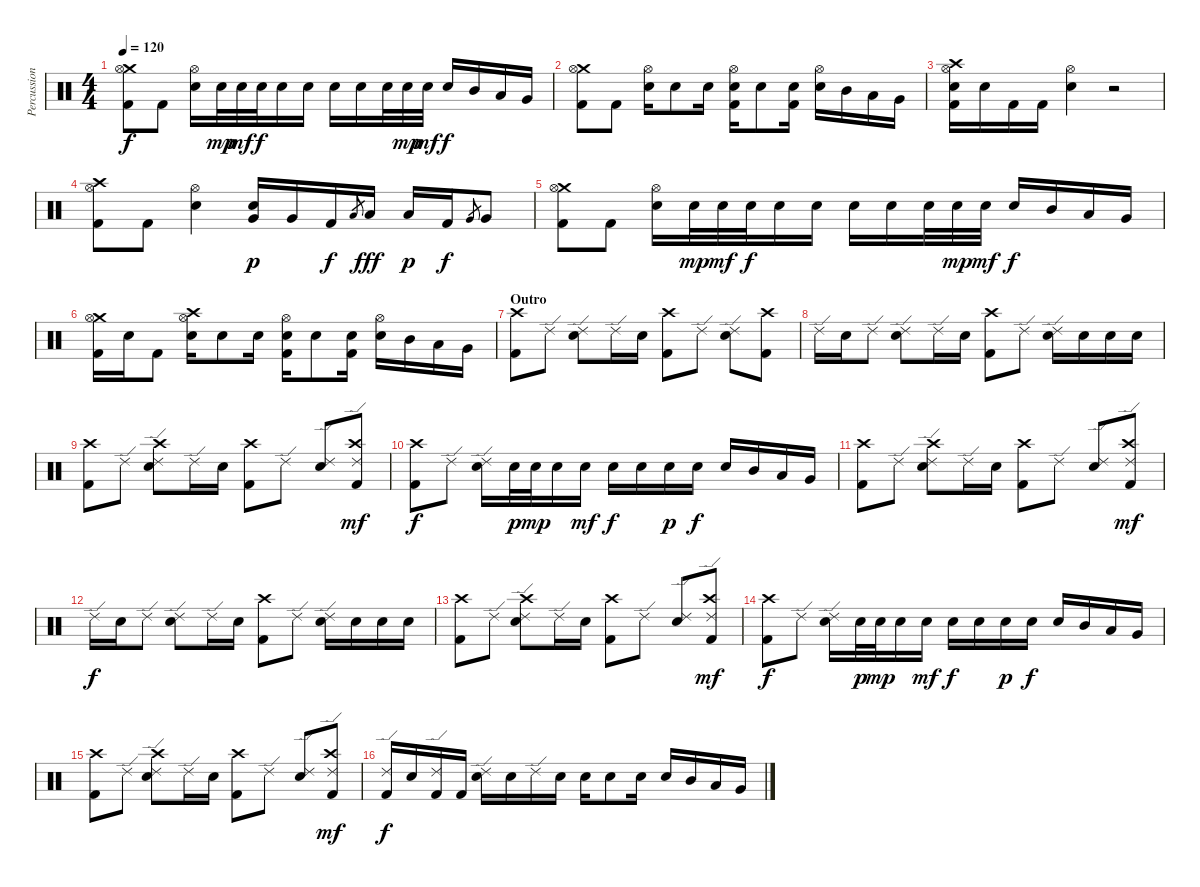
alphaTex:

\track ("Percussion" "Percussion") {instrument percussion}
\staff {score}
\articulation defaults
\ts (4 4)
\tempo 120
\clef neutral
\ks c
("Crash medium (hit)" "Hi-Hat (open)" "Kick (hit) 2").8{dy f} "Kick (hit) 2".8 ("Hi-Hat (open)" "Electric Snare (hit)").16 "Electric Snare (hit)".32{dy mp} "Electric Snare (hit)".32{dy mf} "Electric Snare (hit)".32{dy f} "Electric Snare (hit)".16 "Electric Snare (hit)".16 "Electric Snare (hit)".16 "Electric Snare (hit)".16 "Electric Snare (hit)".32 "Electric Snare (hit)".32{dy mp} "Electric Snare (hit)".32{dy mf} "Electric Snare (hit)".16{dy f} "Mid Tom (hit)".16 "Low Tom (hit)".16 "Very Low Tom (hit)".16 |
("Crash medium (hit)" "Hi-Hat (open)" "Kick (hit) 2").8 "Kick (hit) 2".8 ("Hi-Hat (open)" "Electric Snare (hit)").16 "Electric Snare (hit)".8 "Electric Snare (hit)".16 ("Hi-Hat (open)" "Electric Snare (hit)" "Kick (hit) 2").16 "Electric Snare (hit)".8 ("Electric Snare (hit)" "Kick (hit) 2").16 ("Hi-Hat (open)" "Electric Snare (hit)").16 "Mid Tom (hit)".16 "Low Tom (hit)".16 "Very Low Tom (hit)".16 |
("Crash high (hit)" "Hi-Hat (open)" "Electric Snare (hit)" "Kick (hit) 2").16 "Electric Snare (hit)".16 "Kick (hit) 2".16 "Kick (hit) 2".16 ("Hi-Hat (open)" "Electric Snare (hit)").4 r.2 |
("Crash high (hit)" "Hi-Hat (open)" "Kick (hit) 2").8 "Kick (hit) 2".8 ("Hi-Hat (open)" "Electric Snare (hit)").4 ("Electric Snare (hit)" "Very Low Tom (hit)").16{dy p} "Very Low Tom (hit)".16 "Kick (hit) 2".16{dy f} "Low Tom (hit)".8{gr} "Low Tom (hit)".16{dy fff} "Low Tom (hit)".16{dy p} "Kick (hit) 2".16{dy f} "Very Low Tom (hit)".8{gr} "Very Low Tom (hit)".8 |
("Crash medium (hit)" "Hi-Hat (open)" "Kick (hit) 2").8 "Kick (hit) 2".8 ("Hi-Hat (open)" "Electric Snare (hit)").16 "Electric Snare (hit)".32{dy mp} "Electric Snare (hit)".32{dy mf} "Electric Snare (hit)".32{dy f} "Electric Snare (hit)".16 "Electric Snare (hit)".16 "Electric Snare (hit)".16 "Electric Snare (hit)".16 "Electric Snare (hit)".32 "Electric Snare (hit)".32{dy mp} "Electric Snare (hit)".32{dy mf} "Electric Snare (hit)".16{dy f} "Mid Tom (hit)".16 "Low Tom (hit)".16 "Very Low Tom (hit)".16 |
("Crash medium (hit)" "Hi-Hat (open)" "Kick (hit) 2").16 "Electric Snare (hit)".16 "Kick (hit) 2".8 ("Crash high (hit)" "Hi-Hat (open)" "Electric Snare (hit)").16 "Electric Snare (hit)".8 "Electric Snare (hit)".16 ("Hi-Hat (open)" "Electric Snare (hit)" "Kick (hit) 2").16 "Electric Snare (hit)".8 ("Electric Snare (hit)" "Kick (hit) 2").16 ("Hi-Hat (open)" "Electric Snare (hit)").16 "Mid Tom (hit)".16 "Low Tom (hit)".16 "Very Low Tom (hit)".16 |
\section ("" "Outro")
("Crash high (hit)" "Kick (hit) 2").8 "Ride (edge) 2".8 ("Ride (edge) 2" "Electric Snare (hit)").8 "Ride (edge) 2".16 "Electric Snare (hit)".16 ("Crash high (hit)" "Kick (hit) 2").8 "Ride (edge) 2".8 ("Ride (edge) 2" "Electric Snare (hit)").8 ("Crash high (hit)" "Kick (hit) 2").8 |
"Ride (edge) 2".16 "Electric Snare (hit)".16 "Ride (edge) 2".8 ("Ride (edge) 2" "Electric Snare (hit)").8 "Ride (edge) 2".16 "Electric Snare (hit)".16 ("Crash high (hit)" "Kick (hit) 2").8 "Ride (edge) 2".8 ("Ride (edge) 2" "Electric Snare (hit)").16 "Electric Snare (hit)".16 "Electric Snare (hit)".16 "Electric Snare (hit)".16 |
("Crash high (hit)" "Kick (hit) 2").8 "Ride (edge) 2".8 ("Crash high (hit)" "Ride (edge) 2" "Electric Snare (hit)").8 "Ride (edge) 2".16 "Electric Snare (hit)".16 ("Crash high (hit)" "Kick (hit) 2").8 "Ride (edge) 2".8 ("Ride (edge) 2" "Electric Snare (hit)").8 ("Crash high (hit)" "Ride (edge) 2" "Kick (hit) 2").8{dy mf} |
("Crash high (hit)" "Kick (hit) 2").8{dy f} "Ride (edge) 2".8 ("Ride (edge) 2" "Electric Snare (hit)").16 "Electric Snare (hit)".32{dy p} "Electric Snare (hit)".32{dy mp} "Electric Snare (hit)".16 "Electric Snare (hit)".16{dy mf} "Electric Snare (hit)".16{dy f} "Electric Snare (hit)".16 "Electric Snare (hit)".16{dy p} "Electric Snare (hit)".16{dy f} "Electric Snare (hit)".16 "Mid Tom (hit)".16 "Low Tom (hit)".16 "Very Low Tom (hit)".16 |
("Crash high (hit)" "Kick (hit) 2").8 "Ride (edge) 2".8 ("Crash high (hit)" "Ride (edge) 2" "Electric Snare (hit)").8 "Ride (edge) 2".16 "Electric Snare (hit)".16 ("Crash high (hit)" "Kick (hit) 2").8 "Ride (edge) 2".8 ("Ride (edge) 2" "Electric Snare (hit)").8 ("Crash high (hit)" "Ride (edge) 2" "Kick (hit) 2").8{dy mf} |
"Ride (edge) 2".16{dy f} "Electric Snare (hit)".16 "Ride (edge) 2".8 ("Ride (edge) 2" "Electric Snare (hit)").8 "Ride (edge) 2".16 "Electric Snare (hit)".16 ("Crash high (hit)" "Kick (hit) 2").8 "Ride (edge) 2".8 ("Ride (edge) 2" "Electric Snare (hit)").16 "Electric Snare (hit)".16 "Electric Snare (hit)".16 "Electric Snare (hit)".16 |
("Crash high (hit)" "Kick (hit) 2").8 "Ride (edge) 2".8 ("Crash high (hit)" "Ride (edge) 2" "Electric Snare (hit)").8 "Ride (edge) 2".16 "Electric Snare (hit)".16 ("Crash high (hit)" "Kick (hit) 2").8 "Ride (edge) 2".8 ("Ride (edge) 2" "Electric Snare (hit)").8 ("Crash high (hit)" "Ride (edge) 2" "Kick (hit) 2").8{dy mf} |
("Crash high (hit)" "Kick (hit) 2").8{dy f} "Ride (edge) 2".8 ("Ride (edge) 2" "Electric Snare (hit)").16 "Electric Snare (hit)".32{dy p} "Electric Snare (hit)".32{dy mp} "Electric Snare (hit)".16 "Electric Snare (hit)".16{dy mf} "Electric Snare (hit)".16{dy f} "Electric Snare (hit)".16 "Electric Snare (hit)".16{dy p} "Electric Snare (hit)".16{dy f} "Electric Snare (hit)".16 "Mid Tom (hit)".16 "Low Tom (hit)".16 "Very Low Tom (hit)".16 |
("Crash high (hit)" "Kick (hit) 2").8 "Ride (edge) 2".8 ("Crash high (hit)" "Ride (edge) 2" "Electric Snare (hit)").8 "Ride (edge) 2".16 "Electric Snare (hit)".16 ("Crash high (hit)" "Kick (hit) 2").8 "Ride (edge) 2".8 ("Ride (edge) 2" "Electric Snare (hit)").8 ("Crash high (hit)" "Ride (edge) 2" "Kick (hit) 2").8{dy mf} |
("Ride (edge) 2" "Kick (hit) 2").16{dy f} "Electric Snare (hit)".16 ("Ride (edge) 2" "Kick (hit) 2").16 "Kick (hit) 2".16 ("Ride (edge) 2" "Electric Snare (hit)").16 "Electric Snare (hit)".16 "Ride (edge) 2".16 "Electric Snare (hit)".16 "Electric Snare (hit)".16 "Electric Snare (hit)".8 "Electric Snare (hit)".16 "Electric Snare (hit)".16 "Mid Tom (hit)".16 "Low Tom (hit)".16 "Very Low Tom (hit)".16
